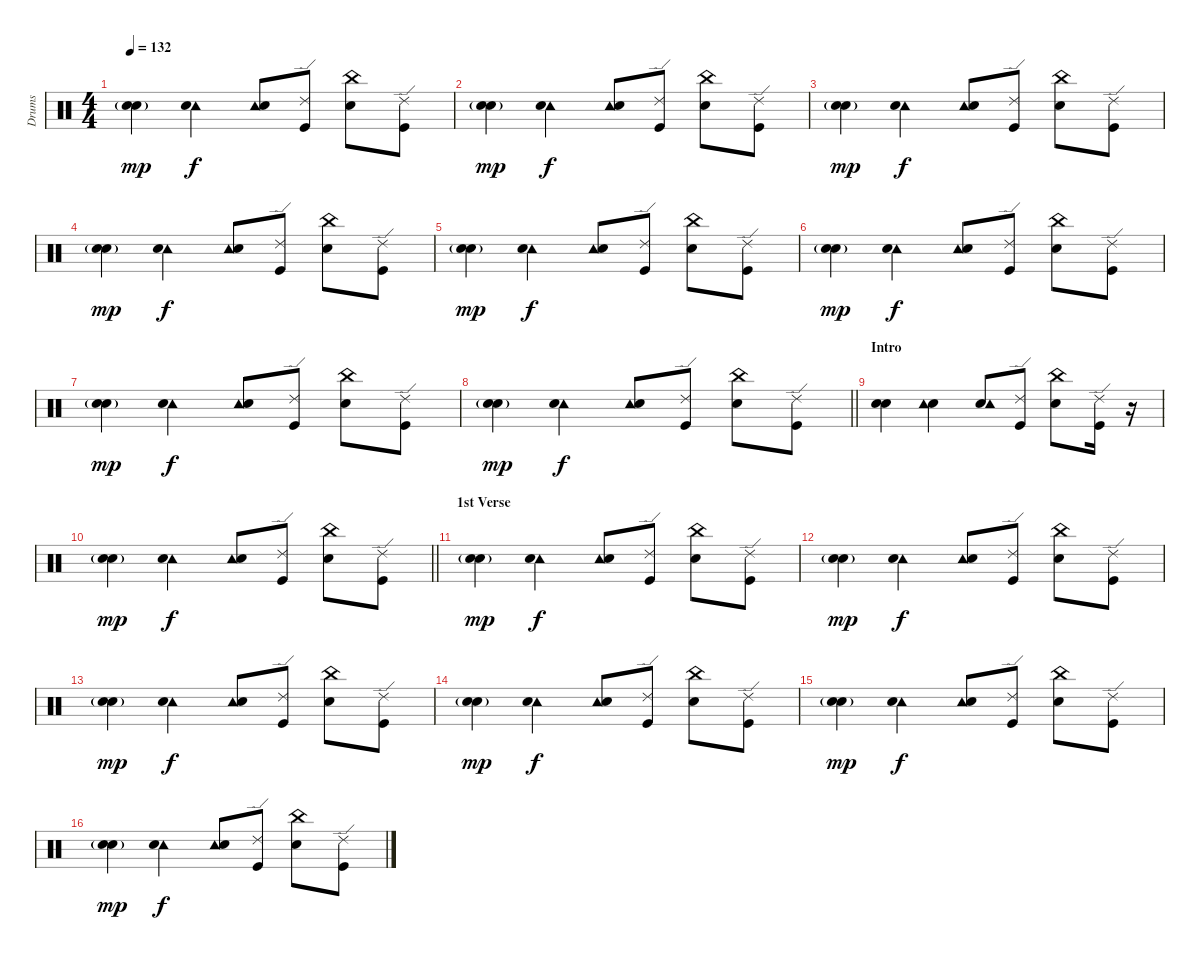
\track ("Drums" "Drums") {instrument percussion}
\staff {score}
\articulation defaults
\ts (4 4)
\tempo 132
\clef neutral
\ks c
("Snare (hit) 2" "Electric Snare (hit)"{g}).4{dy mp} ("Tambourine (hit)" "Snare (hit) 2").4{dy f} ("Tambourine (hit)" "Snare (hit) 2").8 ("Ride (edge) 2" "Kick (hit)").8 ("China (hit)" "Snare (hit) 2").8 ("Ride (edge) 2" "Kick (hit)").8 |
("Snare (hit) 2" "Electric Snare (hit)"{g}).4{dy mp} ("Tambourine (hit)" "Snare (hit) 2").4{dy f} ("Tambourine (hit)" "Snare (hit) 2").8 ("Ride (edge) 2" "Kick (hit)").8 ("China (hit)" "Snare (hit) 2").8 ("Ride (edge) 2" "Kick (hit)").8 |
("Snare (hit) 2" "Electric Snare (hit)"{g}).4{dy mp} ("Tambourine (hit)" "Snare (hit) 2").4{dy f} ("Tambourine (hit)" "Snare (hit) 2").8 ("Ride (edge) 2" "Kick (hit)").8 ("China (hit)" "Snare (hit) 2").8 ("Ride (edge) 2" "Kick (hit)").8 |
("Snare (hit) 2" "Electric Snare (hit)"{g}).4{dy mp} ("Tambourine (hit)" "Snare (hit) 2").4{dy f} ("Tambourine (hit)" "Snare (hit) 2").8 ("Ride (edge) 2" "Kick (hit)").8 ("China (hit)" "Snare (hit) 2").8 ("Ride (edge) 2" "Kick (hit)").8 |
("Snare (hit) 2" "Electric Snare (hit)"{g}).4{dy mp} ("Tambourine (hit)" "Snare (hit) 2").4{dy f} ("Tambourine (hit)" "Snare (hit) 2").8 ("Ride (edge) 2" "Kick (hit)").8 ("China (hit)" "Snare (hit) 2").8 ("Ride (edge) 2" "Kick (hit)").8 |
("Snare (hit) 2" "Electric Snare (hit)"{g}).4{dy mp} ("Tambourine (hit)" "Snare (hit) 2").4{dy f} ("Tambourine (hit)" "Snare (hit) 2").8 ("Ride (edge) 2" "Kick (hit)").8 ("China (hit)" "Snare (hit) 2").8 ("Ride (edge) 2" "Kick (hit)").8 |
("Snare (hit) 2" "Electric Snare (hit)"{g}).4{dy mp} ("Tambourine (hit)" "Snare (hit) 2").4{dy f} ("Tambourine (hit)" "Snare (hit) 2").8 ("Ride (edge) 2" "Kick (hit)").8 ("China (hit)" "Snare (hit) 2").8 ("Ride (edge) 2" "Kick (hit)").8 |
\barLineRight lightlight
("Snare (hit) 2" "Electric Snare (hit)"{g}).4{dy mp} ("Tambourine (hit)" "Snare (hit) 2").4{dy f} ("Tambourine (hit)" "Snare (hit) 2").8 ("Ride (edge) 2" "Kick (hit)").8 ("China (hit)" "Snare (hit) 2").8 ("Ride (edge) 2" "Kick (hit)").8 |
\section ("" "Intro")
("Snare (hit) 2" "Electric Snare (hit)").4 ("Snare (hit) 2" "Tambourine (hit)").4 ("Snare (hit) 2" "Tambourine (hit)").8 ("Kick (hit)" "Ride (edge) 2").8 ("Snare (hit) 2" "China (hit)").8 ("Kick (hit)" "Ride (edge) 2").16 r.16 |
\barLineRight lightlight
("Snare (hit) 2" "Electric Snare (hit)"{g}).4{dy mp} ("Tambourine (hit)" "Snare (hit) 2").4{dy f} ("Tambourine (hit)" "Snare (hit) 2").8 ("Ride (edge) 2" "Kick (hit)").8 ("China (hit)" "Snare (hit) 2").8 ("Ride (edge) 2" "Kick (hit)").8 |
\section ("" "1st Verse")
("Snare (hit) 2" "Electric Snare (hit)"{g}).4{dy mp} ("Tambourine (hit)" "Snare (hit) 2").4{dy f} ("Tambourine (hit)" "Snare (hit) 2").8 ("Ride (edge) 2" "Kick (hit)").8 ("China (hit)" "Snare (hit) 2").8 ("Ride (edge) 2" "Kick (hit)").8 |
("Snare (hit) 2" "Electric Snare (hit)"{g}).4{dy mp} ("Tambourine (hit)" "Snare (hit) 2").4{dy f} ("Tambourine (hit)" "Snare (hit) 2").8 ("Ride (edge) 2" "Kick (hit)").8 ("China (hit)" "Snare (hit) 2").8 ("Ride (edge) 2" "Kick (hit)").8 |
("Snare (hit) 2" "Electric Snare (hit)"{g}).4{dy mp} ("Tambourine (hit)" "Snare (hit) 2").4{dy f} ("Tambourine (hit)" "Snare (hit) 2").8 ("Ride (edge) 2" "Kick (hit)").8 ("China (hit)" "Snare (hit) 2").8 ("Ride (edge) 2" "Kick (hit)").8 |
("Snare (hit) 2" "Electric Snare (hit)"{g}).4{dy mp} ("Tambourine (hit)" "Snare (hit) 2").4{dy f} ("Tambourine (hit)" "Snare (hit) 2").8 ("Ride (edge) 2" "Kick (hit)").8 ("China (hit)" "Snare (hit) 2").8 ("Ride (edge) 2" "Kick (hit)").8 |
("Snare (hit) 2" "Electric Snare (hit)"{g}).4{dy mp} ("Tambourine (hit)" "Snare (hit) 2").4{dy f} ("Tambourine (hit)" "Snare (hit) 2").8 ("Ride (edge) 2" "Kick (hit)").8 ("China (hit)" "Snare (hit) 2").8 ("Ride (edge) 2" "Kick (hit)").8 |
("Snare (hit) 2" "Electric Snare (hit)"{g}).4{dy mp} ("Tambourine (hit)" "Snare (hit) 2").4{dy f} ("Tambourine (hit)" "Snare (hit) 2").8 ("Ride (edge) 2" "Kick (hit)").8 ("China (hit)" "Snare (hit) 2").8 ("Ride (edge) 2" "Kick (hit)").8
